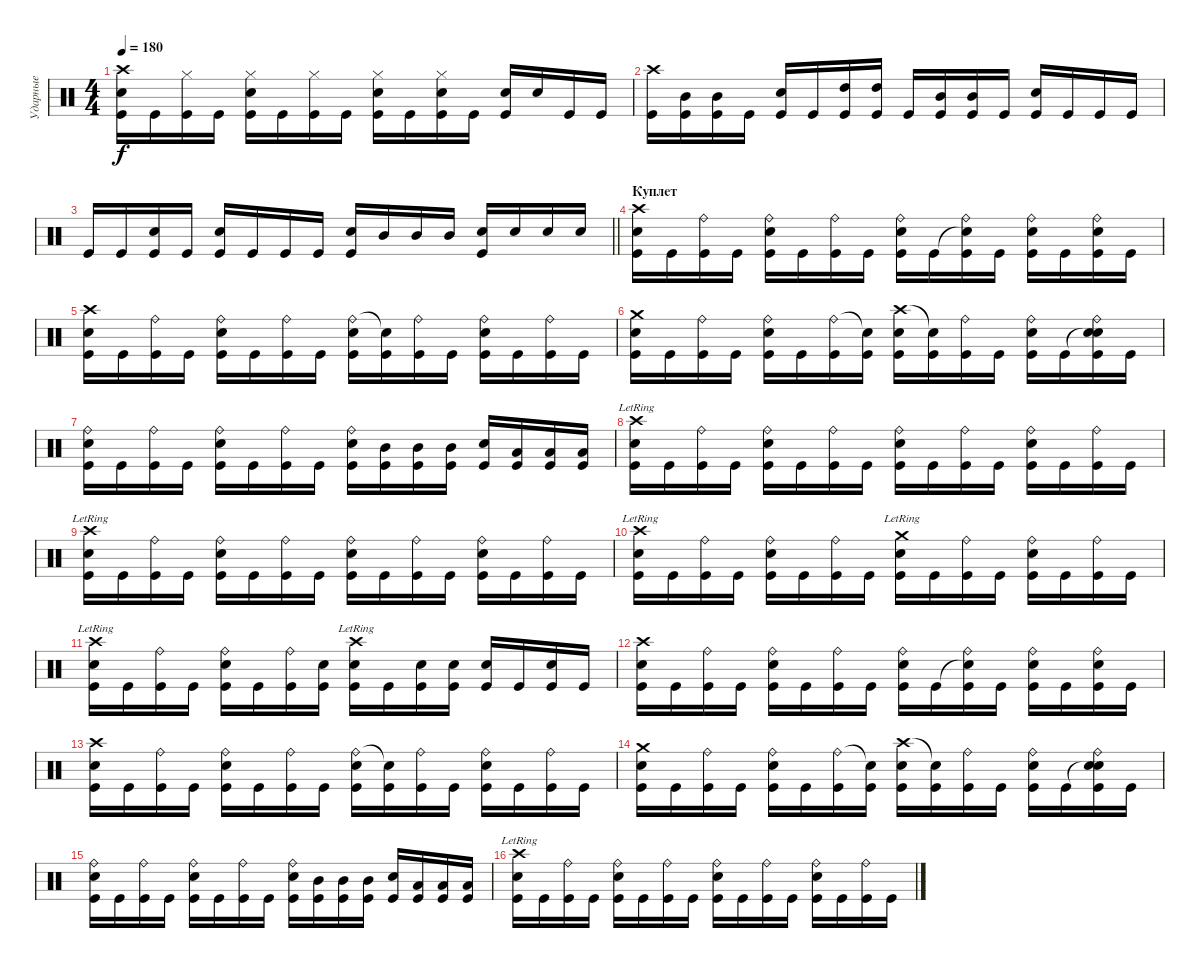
\track ("Ударные" "Ударные") {instrument percussion}
\staff {score}
\articulation defaults
\ts (4 4)
\tempo 180
\clef neutral
\ks c
("Crash high (hit)" "Electric Snare (hit)" "Kick (hit)").16{dy f} "Kick (hit)".16 ("Hi-Hat (closed)" "Kick (hit)").16 "Kick (hit)".16 ("Hi-Hat (closed)" "Electric Snare (hit)" "Kick (hit)").16 "Kick (hit)".16 ("Hi-Hat (closed)" "Kick (hit)").16 "Kick (hit)".16 ("Hi-Hat (closed)" "Electric Snare (hit)" "Kick (hit)").16 "Kick (hit)".16 ("Hi-Hat (closed)" "Electric Snare (hit)" "Kick (hit)").16 "Kick (hit)".16 ("Electric Snare (hit)" "Kick (hit)").16 "Electric Snare (hit)".16 "Kick (hit)".16 "Kick (hit)".16 |
("Crash high (hit)" "Kick (hit)").16 ("Mid Tom (hit)" "Kick (hit)").16 ("Mid Tom (hit)" "Kick (hit)").16 "Kick (hit)".16 ("Electric Snare (hit)" "Kick (hit)").16 "Kick (hit)".16 ("High Tom (hit)" "Kick (hit)").16 ("High Tom (hit)" "Kick (hit)").16 "Kick (hit)".16 ("Mid Tom (hit)" "Kick (hit)").16 ("Mid Tom (hit)" "Kick (hit)").16 "Kick (hit)".16 ("Electric Snare (hit)" "Kick (hit)").16 "Kick (hit)".16 "Kick (hit)".16 "Kick (hit)".16 |
\barLineRight lightlight "Kick (hit)".16 "Kick (hit)".16
("Electric Snare (hit)" "Kick (hit)").16 "Kick (hit)".16 ("Electric Snare (hit)" "Kick (hit)").16 "Kick (hit)".16 "Kick (hit)".16 "Kick (hit)".16 ("Electric Snare (hit)" "Kick (hit)").16 "Mid Tom (hit)".16 "Mid Tom (hit)".16 "Mid Tom (hit)".16 ("Electric Snare (hit)" "Kick (hit)").16 "Electric Snare (hit)".16 "Electric Snare (hit)".16 "Electric Snare (hit)".16 |
\section ("" "Куплет")
("Crash high (hit)" "Electric Snare (hit)" "Kick (hit)").16 "Kick (hit)".16 ("Ride (bell)" "Kick (hit)").16 "Kick (hit)".16 ("Ride (bell)" "Electric Snare (hit)" "Kick (hit)").16 "Kick (hit)".16 ("Ride (bell)" "Kick (hit)").16 "Kick (hit)".16 ("Ride (bell)" "Electric Snare (hit)" "Kick (hit)").16 "Kick (hit)".16 ("Snare (hit)"{t} "Ride (bell)" "Kick (hit)").16 "Kick (hit)".16 ("Ride (bell)" "Electric Snare (hit)" "Kick (hit)").16 "Kick (hit)".16 ("Ride (bell)" "Electric Snare (hit)" "Kick (hit)").16 "Kick (hit)".16 |
("Crash high (hit)" "Electric Snare (hit)" "Kick (hit)").16 "Kick (hit)".16 ("Ride (bell)" "Kick (hit)").16 "Kick (hit)".16 ("Ride (bell)" "Electric Snare (hit)" "Kick (hit)").16 "Kick (hit)".16 ("Ride (bell)" "Kick (hit)").16 "Kick (hit)".16 ("Ride (bell)" "Electric Snare (hit)" "Kick (hit)").16 ("Snare (hit)"{t} "Kick (hit)").16 ("Ride (bell)" "Kick (hit)").16 "Kick (hit)".16 ("Ride (bell)" "Electric Snare (hit)" "Kick (hit)").16 "Kick (hit)".16 ("Ride (bell)" "Kick (hit)").16 "Kick (hit)".16 |
("Crash medium (hit)" "Electric Snare (hit)" "Kick (hit)").16 "Kick (hit)".16 ("Ride (bell)" "Kick (hit)").16 "Kick (hit)".16 ("Ride (bell)" "Electric Snare (hit)" "Kick (hit)").16 "Kick (hit)".16 ("Ride (bell)" "Kick (hit)").16 ("Snare (hit)"{t} "Kick (hit)").16 ("Crash high (hit)" "Electric Snare (hit)" "Kick (hit)").16 ("Snare (hit)"{t} "Kick (hit)").16 ("Ride (bell)" "Kick (hit)").16 "Kick (hit)".16 ("Ride (bell)" "Electric Snare (hit)" "Kick (hit)").16 "Kick (hit)".16 ("Snare (hit)"{t} "Ride (bell)" "Electric Snare (hit)" "Kick (hit)").16 "Kick (hit)".16 |
("Ride (bell)" "Electric Snare (hit)" "Kick (hit)").16 "Kick (hit)".16 ("Ride (bell)" "Kick (hit)").16 "Kick (hit)".16 ("Ride (bell)" "Electric Snare (hit)" "Kick (hit)").16 "Kick (hit)".16 ("Ride (bell)" "Kick (hit)").16 "Kick (hit)".16 ("Ride (bell)" "Electric Snare (hit)" "Kick (hit)").16 ("Mid Tom (hit)" "Kick (hit)").16 ("Mid Tom (hit)" "Kick (hit)").16 ("Mid Tom (hit)" "Kick (hit)").16 ("Electric Snare (hit)" "Kick (hit)").16 ("Low Tom (hit)" "Kick (hit)").16 ("Low Tom (hit)" "Kick (hit)").16 ("Low Tom (hit)" "Kick (hit)").16 |
("Crash high (hit)"{lr} "Electric Snare (hit)" "Kick (hit)").16 "Kick (hit)".16 ("Ride (bell)" "Kick (hit)").16 "Kick (hit)".16 ("Ride (bell)" "Electric Snare (hit)" "Kick (hit)").16 "Kick (hit)".16 ("Ride (bell)" "Kick (hit)").16 "Kick (hit)".16 ("Ride (bell)" "Electric Snare (hit)" "Kick (hit)").16 "Kick (hit)".16 ("Ride (bell)" "Kick (hit)").16 "Kick (hit)".16 ("Ride (bell)" "Electric Snare (hit)" "Kick (hit)").16 "Kick (hit)".16 ("Ride (bell)" "Kick (hit)").16 "Kick (hit)".16 |
("Crash high (hit)"{lr} "Electric Snare (hit)" "Kick (hit)").16 "Kick (hit)".16 ("Ride (bell)" "Kick (hit)").16 "Kick (hit)".16 ("Ride (bell)" "Electric Snare (hit)" "Kick (hit)").16 "Kick (hit)".16 ("Ride (bell)" "Kick (hit)").16 "Kick (hit)".16 ("Ride (bell)" "Electric Snare (hit)" "Kick (hit)").16 "Kick (hit)".16 ("Ride (bell)" "Kick (hit)").16 "Kick (hit)".16 ("Ride (bell)" "Electric Snare (hit)" "Kick (hit)").16 "Kick (hit)".16 ("Ride (bell)" "Kick (hit)").16 "Kick (hit)".16 |
("Crash high (hit)"{lr} "Electric Snare (hit)" "Kick (hit)").16 "Kick (hit)".16 ("Ride (bell)" "Kick (hit)").16 "Kick (hit)".16 ("Ride (bell)" "Electric Snare (hit)" "Kick (hit)").16 "Kick (hit)".16 ("Ride (bell)" "Kick (hit)").16 "Kick (hit)".16 ("Crash medium (hit)"{lr} "Electric Snare (hit)" "Kick (hit)").16 "Kick (hit)".16 ("Ride (bell)" "Kick (hit)").16 "Kick (hit)".16 ("Ride (bell)" "Electric Snare (hit)" "Kick (hit)").16 "Kick (hit)".16 ("Ride (bell)" "Kick (hit)").16 "Kick (hit)".16 |
("Crash high (hit)"{lr} "Electric Snare (hit)" "Kick (hit)").16 "Kick (hit)".16 ("Ride (bell)" "Kick (hit)").16 "Kick (hit)".16 ("Ride (bell)" "Electric Snare (hit)" "Kick (hit)").16 "Kick (hit)".16 ("Ride (bell)" "Kick (hit)").16 ("Electric Snare (hit)" "Kick (hit)").16 ("Crash high (hit)"{lr} "Electric Snare (hit)" "Kick (hit)").16 "Kick (hit)".16 ("Electric Snare (hit)" "Kick (hit)").16 ("Electric Snare (hit)" "Kick (hit)").16 ("Electric Snare (hit)" "Kick (hit)").16 "Kick (hit)".16 ("Electric Snare (hit)" "Kick (hit)").16 "Kick (hit)".16 |
("Crash high (hit)" "Electric Snare (hit)" "Kick (hit)").16 "Kick (hit)".16 ("Ride (bell)" "Kick (hit)").16 "Kick (hit)".16 ("Ride (bell)" "Electric Snare (hit)" "Kick (hit)").16 "Kick (hit)".16 ("Ride (bell)" "Kick (hit)").16 "Kick (hit)".16 ("Ride (bell)" "Electric Snare (hit)" "Kick (hit)").16 "Kick (hit)".16 ("Snare (hit)"{t} "Ride (bell)" "Kick (hit)").16 "Kick (hit)".16 ("Ride (bell)" "Electric Snare (hit)" "Kick (hit)").16 "Kick (hit)".16 ("Ride (bell)" "Electric Snare (hit)" "Kick (hit)").16 "Kick (hit)".16 |
("Crash high (hit)" "Electric Snare (hit)" "Kick (hit)").16 "Kick (hit)".16 ("Ride (bell)" "Kick (hit)").16 "Kick (hit)".16 ("Ride (bell)" "Electric Snare (hit)" "Kick (hit)").16 "Kick (hit)".16 ("Ride (bell)" "Kick (hit)").16 "Kick (hit)".16 ("Ride (bell)" "Electric Snare (hit)" "Kick (hit)").16 ("Snare (hit)"{t} "Kick (hit)").16 ("Ride (bell)" "Kick (hit)").16 "Kick (hit)".16 ("Ride (bell)" "Electric Snare (hit)" "Kick (hit)").16 "Kick (hit)".16 ("Ride (bell)" "Kick (hit)").16 "Kick (hit)".16 |
("Crash medium (hit)" "Electric Snare (hit)" "Kick (hit)").16 "Kick (hit)".16 ("Ride (bell)" "Kick (hit)").16 "Kick (hit)".16 ("Ride (bell)" "Electric Snare (hit)" "Kick (hit)").16 "Kick (hit)".16 ("Ride (bell)" "Kick (hit)").16 ("Snare (hit)"{t} "Kick (hit)").16 ("Crash high (hit)" "Electric Snare (hit)" "Kick (hit)").16 ("Snare (hit)"{t} "Kick (hit)").16 ("Ride (bell)" "Kick (hit)").16 "Kick (hit)".16 ("Ride (bell)" "Electric Snare (hit)" "Kick (hit)").16 "Kick (hit)".16 ("Snare (hit)"{t} "Ride (bell)" "Electric Snare (hit)" "Kick (hit)").16 "Kick (hit)".16 |
("Ride (bell)" "Electric Snare (hit)" "Kick (hit)").16 "Kick (hit)".16 ("Ride (bell)" "Kick (hit)").16 "Kick (hit)".16 ("Ride (bell)" "Electric Snare (hit)" "Kick (hit)").16 "Kick (hit)".16 ("Ride (bell)" "Kick (hit)").16 "Kick (hit)".16 ("Ride (bell)" "Electric Snare (hit)" "Kick (hit)").16 ("Mid Tom (hit)" "Kick (hit)").16 ("Mid Tom (hit)" "Kick (hit)").16 ("Mid Tom (hit)" "Kick (hit)").16 ("Electric Snare (hit)" "Kick (hit)").16 ("Low Tom (hit)" "Kick (hit)").16 ("Low Tom (hit)" "Kick (hit)").16 ("Low Tom (hit)" "Kick (hit)").16 |
("Crash high (hit)"{lr} "Electric Snare (hit)" "Kick (hit)").16 "Kick (hit)".16 ("Ride (bell)" "Kick (hit)").16 "Kick (hit)".16 ("Ride (bell)" "Electric Snare (hit)" "Kick (hit)").16 "Kick (hit)".16 ("Ride (bell)" "Kick (hit)").16 "Kick (hit)".16 ("Ride (bell)" "Electric Snare (hit)" "Kick (hit)").16 "Kick (hit)".16 ("Ride (bell)" "Kick (hit)").16 "Kick (hit)".16 ("Ride (bell)" "Electric Snare (hit)" "Kick (hit)").16 "Kick (hit)".16 ("Ride (bell)" "Kick (hit)").16 "Kick (hit)".16
